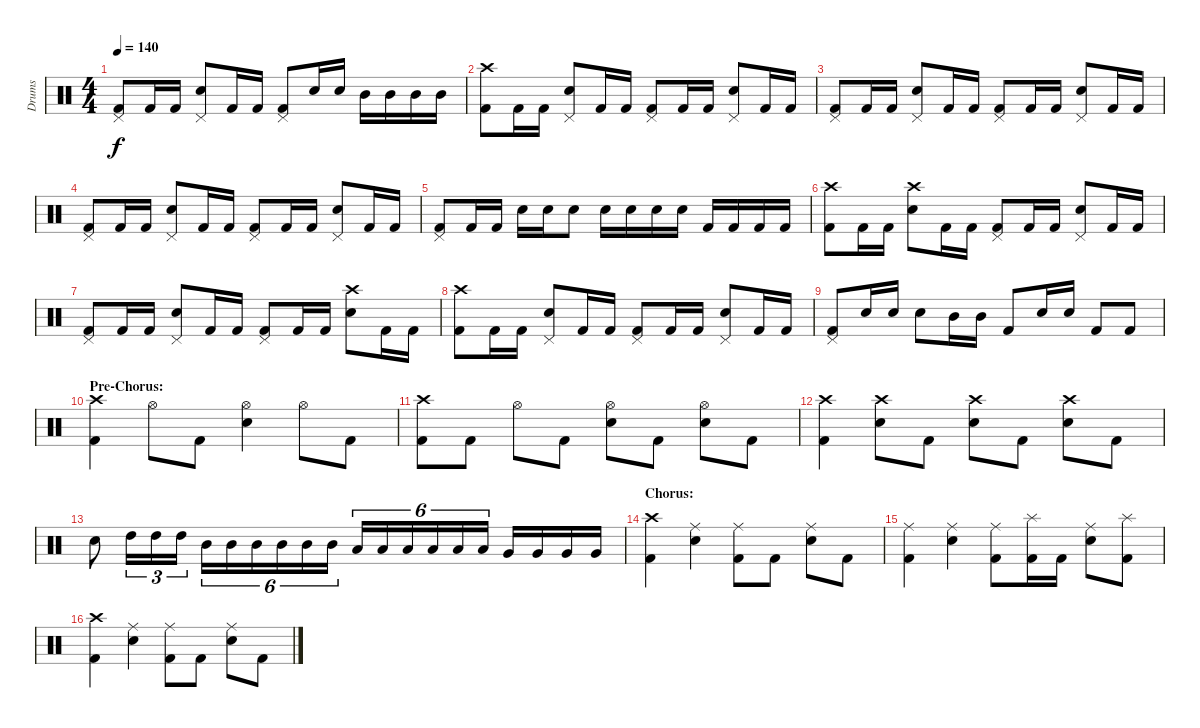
\track ("Drums" "Drums") {instrument percussion}
\staff {score}
\articulation defaults
\ts (4 4)
\tempo 140
\clef neutral
\ks c
("Pedal Hi-Hat (hit)" "Kick (hit) 2").8{dy f} "Kick (hit) 2".16 "Kick (hit) 2".16 ("Pedal Hi-Hat (hit)" "Electric Snare (hit)").8 "Kick (hit) 2".16 "Kick (hit) 2".16 ("Pedal Hi-Hat (hit)" "Kick (hit) 2").8 "Electric Snare (hit)".16 "Electric Snare (hit)".16 "Mid Tom (hit)".16 "Mid Tom (hit)".16 "Mid Tom (hit)".16 "Mid Tom (hit)".16 |
("Crash high (hit)" "Kick (hit) 2").8 "Kick (hit) 2".16 "Kick (hit) 2".16 ("Pedal Hi-Hat (hit)" "Electric Snare (hit)").8 "Kick (hit) 2".16 "Kick (hit) 2".16 ("Pedal Hi-Hat (hit)" "Kick (hit) 2").8 "Kick (hit) 2".16 "Kick (hit) 2".16 ("Pedal Hi-Hat (hit)" "Electric Snare (hit)").8 "Kick (hit) 2".16 "Kick (hit) 2".16 |
("Pedal Hi-Hat (hit)" "Kick (hit) 2").8 "Kick (hit) 2".16 "Kick (hit) 2".16 ("Pedal Hi-Hat (hit)" "Electric Snare (hit)").8 "Kick (hit) 2".16 "Kick (hit) 2".16 ("Pedal Hi-Hat (hit)" "Kick (hit) 2").8 "Kick (hit) 2".16 "Kick (hit) 2".16 ("Pedal Hi-Hat (hit)" "Electric Snare (hit)").8 "Kick (hit) 2".16 "Kick (hit) 2".16 |
("Pedal Hi-Hat (hit)" "Kick (hit) 2").8 "Kick (hit) 2".16 "Kick (hit) 2".16 ("Pedal Hi-Hat (hit)" "Electric Snare (hit)").8 "Kick (hit) 2".16 "Kick (hit) 2".16 ("Pedal Hi-Hat (hit)" "Kick (hit) 2").8 "Kick (hit) 2".16 "Kick (hit) 2".16 ("Pedal Hi-Hat (hit)" "Electric Snare (hit)").8 "Kick (hit) 2".16 "Kick (hit) 2".16 |
("Pedal Hi-Hat (hit)" "Kick (hit) 2").8 "Kick (hit) 2".16 "Kick (hit) 2".16 "Electric Snare (hit)".16 "Electric Snare (hit)".16 "Electric Snare (hit)".8 "Electric Snare (hit)".16 "Electric Snare (hit)".16 "Electric Snare (hit)".16 "Electric Snare (hit)".16 "Kick (hit) 2".16 "Kick (hit) 2".16 "Kick (hit) 2".16 "Kick (hit) 2".16 |
("Crash high (hit)" "Kick (hit) 2").8 "Kick (hit) 2".16 "Kick (hit) 2".16 ("Crash high (hit)" "Electric Snare (hit)").8 "Kick (hit) 2".16 "Kick (hit) 2".16 ("Pedal Hi-Hat (hit)" "Kick (hit) 2").8 "Kick (hit) 2".16 "Kick (hit) 2".16 ("Pedal Hi-Hat (hit)" "Electric Snare (hit)").8 "Kick (hit) 2".16 "Kick (hit) 2".16 |
("Pedal Hi-Hat (hit)" "Kick (hit) 2").8 "Kick (hit) 2".16 "Kick (hit) 2".16 ("Pedal Hi-Hat (hit)" "Electric Snare (hit)").8 "Kick (hit) 2".16 "Kick (hit) 2".16 ("Pedal Hi-Hat (hit)" "Kick (hit) 2").8 "Kick (hit) 2".16 "Kick (hit) 2".16 ("Crash high (hit)" "Electric Snare (hit)").8 "Kick (hit) 2".16 "Kick (hit) 2".16 |
("Crash high (hit)" "Kick (hit) 2").8 "Kick (hit) 2".16 "Kick (hit) 2".16 ("Pedal Hi-Hat (hit)" "Electric Snare (hit)").8 "Kick (hit) 2".16 "Kick (hit) 2".16 ("Pedal Hi-Hat (hit)" "Kick (hit) 2").8 "Kick (hit) 2".16 "Kick (hit) 2".16 ("Pedal Hi-Hat (hit)" "Electric Snare (hit)").8 "Kick (hit) 2".16 "Kick (hit) 2".16 |
("Pedal Hi-Hat (hit)" "Kick (hit) 2").8 "Electric Snare (hit)".16 "Electric Snare (hit)".16 "Electric Snare (hit)".8 "Mid Tom (hit)".16 "Mid Tom (hit)".16 "Kick (hit) 2".8 "Electric Snare (hit)".16 "Electric Snare (hit)".16 "Kick (hit) 2".8 "Kick (hit) 2".8 |
\section ("" "Pre-Chorus:")
("Crash high (hit)" "Kick (hit) 2").4 "Hi-Hat (open)".8 "Kick (hit) 2".8 ("Hi-Hat (open)" "Electric Snare (hit)").4 "Hi-Hat (open)".8 "Kick (hit) 2".8 |
("Crash high (hit)" "Kick (hit) 2").8 "Kick (hit) 2".8 "Hi-Hat (open)".8 "Kick (hit) 2".8 ("Hi-Hat (open)" "Electric Snare (hit)").8 "Kick (hit) 2".8 ("Hi-Hat (open)" "Electric Snare (hit)").8 "Kick (hit) 2".8 |
("Crash high (hit)" "Kick (hit) 2").4 ("Crash high (hit)" "Electric Snare (hit)").8 "Kick (hit) 2".8 ("Crash high (hit)" "Electric Snare (hit)").8 "Kick (hit) 2".8 ("Crash high (hit)" "Electric Snare (hit)").8 "Kick (hit) 2".8 |
"Electric Snare (hit)".8 "High Tom (hit)".16{tu (3 2)} "High Tom (hit)".16{tu (3 2)} "High Tom (hit)".16{tu (3 2)} "Mid Tom (hit)".16{tu (6 4)} "Mid Tom (hit)".16{tu (6 4)} "Mid Tom (hit)".16{tu (6 4)} "Mid Tom (hit)".16{tu (6 4)} "Mid Tom (hit)".16{tu (6 4)} "Mid Tom (hit)".16{tu (6 4)} "Low Tom (hit)".16{tu (6 4)} "Low Tom (hit)".16{tu (6 4)} "Low Tom (hit)".16{tu (6 4)} "Low Tom (hit)".16{tu (6 4)} "Low Tom (hit)".16{tu (6 4)} "Low Tom (hit)".16{tu (6 4)} "Very Low Tom (hit)".16 "Very Low Tom (hit)".16 "Very Low Tom (hit)".16 "Very Low Tom (hit)".16 |
\section ("" "Chorus:")
("Crash high (hit)" "Kick (hit) 2").4 ("Ride (middle)" "Electric Snare (hit)").4 ("Ride (middle)" "Kick (hit) 2").8 "Kick (hit) 2".8 ("Ride (middle)" "Electric Snare (hit)").8 "Kick (hit) 2".8 |
("Ride (middle)" "Kick (hit) 2").4 ("Ride (middle)" "Electric Snare (hit)").4 ("Ride (middle)" "Kick (hit) 2").8 ("Splash (hit)" "Kick (hit) 2").16 "Kick (hit) 2".16 ("Ride (middle)" "Electric Snare (hit)").8 ("Splash (hit)" "Kick (hit) 2").8 |
("Crash high (hit)" "Kick (hit) 2").4 ("Ride (middle)" "Electric Snare (hit)").4 ("Ride (middle)" "Kick (hit) 2").8 "Kick (hit) 2".8 ("Ride (middle)" "Electric Snare (hit)").8 "Kick (hit) 2".8
